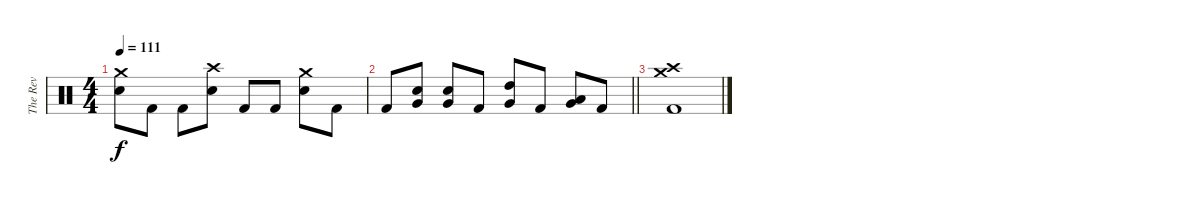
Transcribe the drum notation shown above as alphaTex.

\track ("The Rev" "The Rev") {instrument percussion}
\staff {score}
\articulation defaults
\ts (4 4)
\tempo 111
\clef neutral
\ks c
("Crash medium (hit)" "Snare (hit) 2").8{dy f} "Kick (hit) 2".8 "Kick (hit) 2".8 ("Crash high (hit)" "Snare (hit) 2").8 "Kick (hit) 2".8 "Kick (hit) 2".8 ("Crash medium (hit)" "Snare (hit) 2").8 "Kick (hit) 2".8 |
\barLineRight lightlight "Kick (hit) 2".8
("Snare (hit) 2" "Very Low Tom (hit)").8 ("Snare (hit) 2" "Very Low Tom (hit)").8 "Kick (hit) 2".8 ("High Tom (hit)" "Very Low Tom (hit)").8 "Kick (hit) 2".8 ("Low Tom (hit)" "Very Low Tom (hit)").8 "Kick (hit) 2".8 |
("Crash medium (hit)" "Crash high (hit)" "Kick (hit) 2").1
